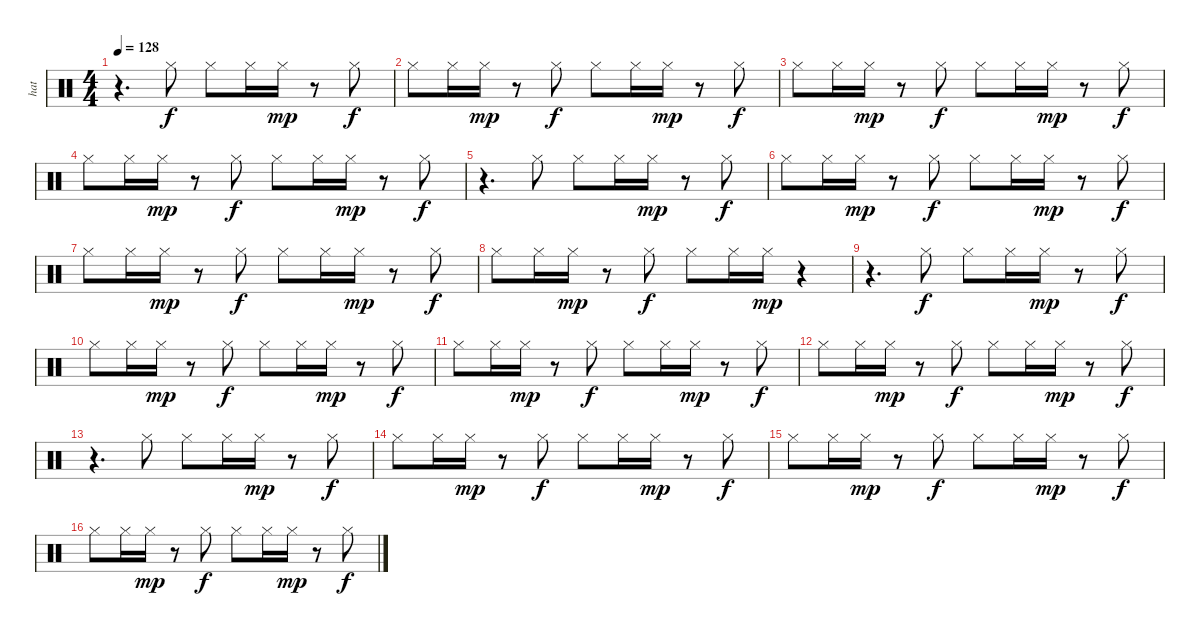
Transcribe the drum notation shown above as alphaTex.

\track ("hat" "hat") {instrument percussion}
\staff {score}
\articulation defaults
\ts (4 4)
\tempo 128
\clef neutral
\ks c
r.4{d dy mf} "Hi-Hat (closed)".8{dy f} "Hi-Hat (closed)".8 "Hi-Hat (closed)".16 "Hi-Hat (closed)".16{dy mp} r.8 "Hi-Hat (closed)".8{dy f} |
"Hi-Hat (closed)".8 "Hi-Hat (closed)".16 "Hi-Hat (closed)".16{dy mp} r.8 "Hi-Hat (closed)".8{dy f} "Hi-Hat (closed)".8 "Hi-Hat (closed)".16 "Hi-Hat (closed)".16{dy mp} r.8 "Hi-Hat (closed)".8{dy f} |
"Hi-Hat (closed)".8 "Hi-Hat (closed)".16 "Hi-Hat (closed)".16{dy mp} r.8 "Hi-Hat (closed)".8{dy f} "Hi-Hat (closed)".8 "Hi-Hat (closed)".16 "Hi-Hat (closed)".16{dy mp} r.8 "Hi-Hat (closed)".8{dy f} |
"Hi-Hat (closed)".8 "Hi-Hat (closed)".16 "Hi-Hat (closed)".16{dy mp} r.8 "Hi-Hat (closed)".8{dy f} "Hi-Hat (closed)".8 "Hi-Hat (closed)".16 "Hi-Hat (closed)".16{dy mp} r.8 "Hi-Hat (closed)".8{dy f} |
r.4{d} "Hi-Hat (closed)".8 "Hi-Hat (closed)".8 "Hi-Hat (closed)".16 "Hi-Hat (closed)".16{dy mp} r.8 "Hi-Hat (closed)".8{dy f} |
"Hi-Hat (closed)".8 "Hi-Hat (closed)".16 "Hi-Hat (closed)".16{dy mp} r.8 "Hi-Hat (closed)".8{dy f} "Hi-Hat (closed)".8 "Hi-Hat (closed)".16 "Hi-Hat (closed)".16{dy mp} r.8 "Hi-Hat (closed)".8{dy f} |
"Hi-Hat (closed)".8 "Hi-Hat (closed)".16 "Hi-Hat (closed)".16{dy mp} r.8 "Hi-Hat (closed)".8{dy f} "Hi-Hat (closed)".8 "Hi-Hat (closed)".16 "Hi-Hat (closed)".16{dy mp} r.8 "Hi-Hat (closed)".8{dy f} |
"Hi-Hat (closed)".8 "Hi-Hat (closed)".16 "Hi-Hat (closed)".16{dy mp} r.8 "Hi-Hat (closed)".8{dy f} "Hi-Hat (closed)".8 "Hi-Hat (closed)".16 "Hi-Hat (closed)".16{dy mp} r.4 |
r.4{d} "Hi-Hat (closed)".8{dy f} "Hi-Hat (closed)".8 "Hi-Hat (closed)".16 "Hi-Hat (closed)".16{dy mp} r.8 "Hi-Hat (closed)".8{dy f} |
"Hi-Hat (closed)".8 "Hi-Hat (closed)".16 "Hi-Hat (closed)".16{dy mp} r.8 "Hi-Hat (closed)".8{dy f} "Hi-Hat (closed)".8 "Hi-Hat (closed)".16 "Hi-Hat (closed)".16{dy mp} r.8 "Hi-Hat (closed)".8{dy f} |
"Hi-Hat (closed)".8 "Hi-Hat (closed)".16 "Hi-Hat (closed)".16{dy mp} r.8 "Hi-Hat (closed)".8{dy f} "Hi-Hat (closed)".8 "Hi-Hat (closed)".16 "Hi-Hat (closed)".16{dy mp} r.8 "Hi-Hat (closed)".8{dy f} |
"Hi-Hat (closed)".8 "Hi-Hat (closed)".16 "Hi-Hat (closed)".16{dy mp} r.8 "Hi-Hat (closed)".8{dy f} "Hi-Hat (closed)".8 "Hi-Hat (closed)".16 "Hi-Hat (closed)".16{dy mp} r.8 "Hi-Hat (closed)".8{dy f} |
r.4{d} "Hi-Hat (closed)".8 "Hi-Hat (closed)".8 "Hi-Hat (closed)".16 "Hi-Hat (closed)".16{dy mp} r.8 "Hi-Hat (closed)".8{dy f} |
"Hi-Hat (closed)".8 "Hi-Hat (closed)".16 "Hi-Hat (closed)".16{dy mp} r.8 "Hi-Hat (closed)".8{dy f} "Hi-Hat (closed)".8 "Hi-Hat (closed)".16 "Hi-Hat (closed)".16{dy mp} r.8 "Hi-Hat (closed)".8{dy f} |
"Hi-Hat (closed)".8 "Hi-Hat (closed)".16 "Hi-Hat (closed)".16{dy mp} r.8 "Hi-Hat (closed)".8{dy f} "Hi-Hat (closed)".8 "Hi-Hat (closed)".16 "Hi-Hat (closed)".16{dy mp} r.8 "Hi-Hat (closed)".8{dy f} |
"Hi-Hat (closed)".8 "Hi-Hat (closed)".16 "Hi-Hat (closed)".16{dy mp} r.8 "Hi-Hat (closed)".8{dy f} "Hi-Hat (closed)".8 "Hi-Hat (closed)".16 "Hi-Hat (closed)".16{dy mp} r.8 "Hi-Hat (closed)".8{dy f}
